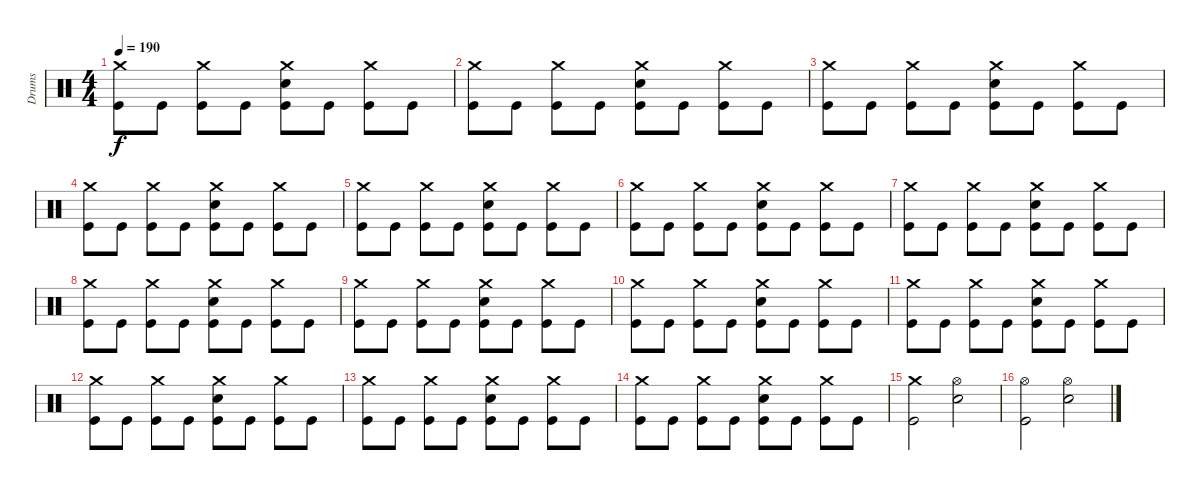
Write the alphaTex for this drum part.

\track ("Drums" "Drums") {instrument percussion}
\staff {score}
\articulation defaults
\ts (4 4)
\tempo 190
\clef neutral
\ks c
("Crash medium (hit)" "Kick (hit)").8{dy f} "Kick (hit)".8 ("Crash medium (hit)" "Kick (hit)").8 "Kick (hit)".8 ("Crash medium (hit)" "Snare (hit) 2" "Kick (hit)").8 "Kick (hit)".8 ("Crash medium (hit)" "Kick (hit)").8 "Kick (hit)".8 |
("Crash medium (hit)" "Kick (hit)").8 "Kick (hit)".8 ("Crash medium (hit)" "Kick (hit)").8 "Kick (hit)".8 ("Crash medium (hit)" "Snare (hit) 2" "Kick (hit)").8 "Kick (hit)".8 ("Crash medium (hit)" "Kick (hit)").8 "Kick (hit)".8 |
("Crash medium (hit)" "Kick (hit)").8 "Kick (hit)".8 ("Crash medium (hit)" "Kick (hit)").8 "Kick (hit)".8 ("Crash medium (hit)" "Snare (hit) 2" "Kick (hit)").8 "Kick (hit)".8 ("Crash medium (hit)" "Kick (hit)").8 "Kick (hit)".8 |
("Crash medium (hit)" "Kick (hit)").8 "Kick (hit)".8 ("Crash medium (hit)" "Kick (hit)").8 "Kick (hit)".8 ("Crash medium (hit)" "Snare (hit) 2" "Kick (hit)").8 "Kick (hit)".8 ("Crash medium (hit)" "Kick (hit)").8 "Kick (hit)".8 |
("Crash medium (hit)" "Kick (hit)").8 "Kick (hit)".8 ("Crash medium (hit)" "Kick (hit)").8 "Kick (hit)".8 ("Crash medium (hit)" "Snare (hit) 2" "Kick (hit)").8 "Kick (hit)".8 ("Crash medium (hit)" "Kick (hit)").8 "Kick (hit)".8 |
("Crash medium (hit)" "Kick (hit)").8 "Kick (hit)".8 ("Crash medium (hit)" "Kick (hit)").8 "Kick (hit)".8 ("Crash medium (hit)" "Snare (hit) 2" "Kick (hit)").8 "Kick (hit)".8 ("Crash medium (hit)" "Kick (hit)").8 "Kick (hit)".8 |
("Crash medium (hit)" "Kick (hit)").8 "Kick (hit)".8 ("Crash medium (hit)" "Kick (hit)").8 "Kick (hit)".8 ("Crash medium (hit)" "Snare (hit) 2" "Kick (hit)").8 "Kick (hit)".8 ("Crash medium (hit)" "Kick (hit)").8 "Kick (hit)".8 |
("Crash medium (hit)" "Kick (hit)").8 "Kick (hit)".8 ("Crash medium (hit)" "Kick (hit)").8 "Kick (hit)".8 ("Crash medium (hit)" "Snare (hit) 2" "Kick (hit)").8 "Kick (hit)".8 ("Crash medium (hit)" "Kick (hit)").8 "Kick (hit)".8 |
("Crash medium (hit)" "Kick (hit)").8 "Kick (hit)".8 ("Crash medium (hit)" "Kick (hit)").8 "Kick (hit)".8 ("Crash medium (hit)" "Snare (hit) 2" "Kick (hit)").8 "Kick (hit)".8 ("Crash medium (hit)" "Kick (hit)").8 "Kick (hit)".8 |
("Crash medium (hit)" "Kick (hit)").8 "Kick (hit)".8 ("Crash medium (hit)" "Kick (hit)").8 "Kick (hit)".8 ("Crash medium (hit)" "Snare (hit) 2" "Kick (hit)").8 "Kick (hit)".8 ("Crash medium (hit)" "Kick (hit)").8 "Kick (hit)".8 |
("Crash medium (hit)" "Kick (hit)").8 "Kick (hit)".8 ("Crash medium (hit)" "Kick (hit)").8 "Kick (hit)".8 ("Crash medium (hit)" "Snare (hit) 2" "Kick (hit)").8 "Kick (hit)".8 ("Crash medium (hit)" "Kick (hit)").8 "Kick (hit)".8 |
("Crash medium (hit)" "Kick (hit)").8 "Kick (hit)".8 ("Crash medium (hit)" "Kick (hit)").8 "Kick (hit)".8 ("Crash medium (hit)" "Snare (hit) 2" "Kick (hit)").8 "Kick (hit)".8 ("Crash medium (hit)" "Kick (hit)").8 "Kick (hit)".8 |
("Crash medium (hit)" "Kick (hit)").8 "Kick (hit)".8 ("Crash medium (hit)" "Kick (hit)").8 "Kick (hit)".8 ("Crash medium (hit)" "Snare (hit) 2" "Kick (hit)").8 "Kick (hit)".8 ("Crash medium (hit)" "Kick (hit)").8 "Kick (hit)".8 |
("Crash medium (hit)" "Kick (hit)").8 "Kick (hit)".8 ("Crash medium (hit)" "Kick (hit)").8 "Kick (hit)".8 ("Crash medium (hit)" "Snare (hit) 2" "Kick (hit)").8 "Kick (hit)".8 ("Crash medium (hit)" "Kick (hit)").8 "Kick (hit)".8 |
("Crash medium (hit)" "Kick (hit)").2 ("Hi-Hat (open)" "Snare (hit) 2").2 |
("Hi-Hat (open)" "Kick (hit)").2 ("Hi-Hat (open)" "Snare (hit) 2").2
